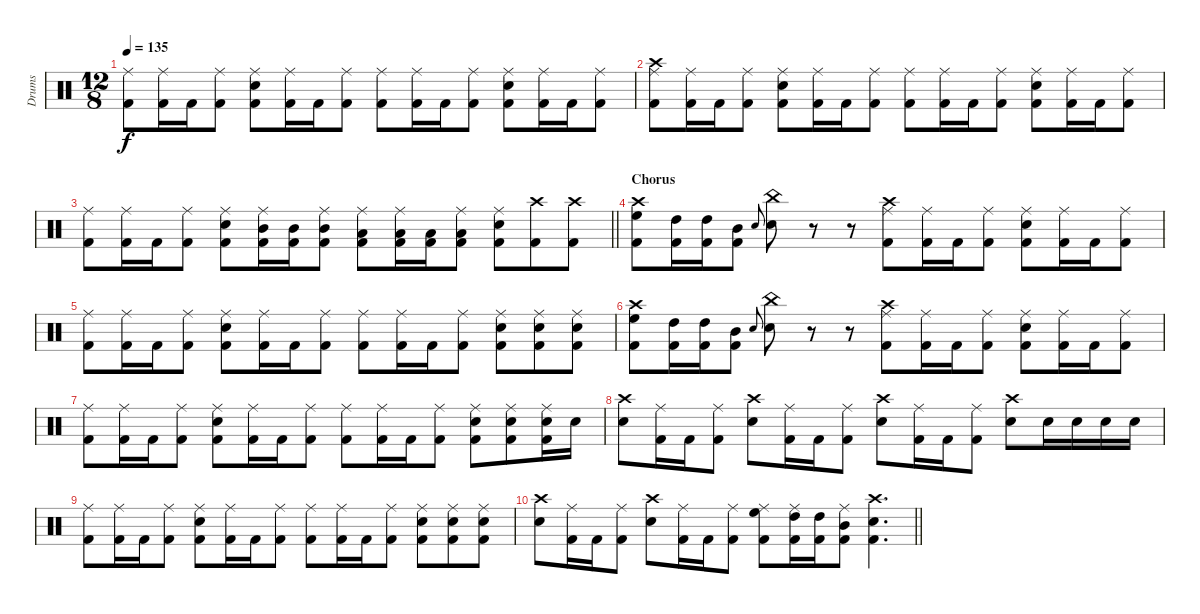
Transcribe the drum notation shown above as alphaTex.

\track ("Drums" "Drums") {instrument percussion}
\staff {score}
\articulation defaults
\ts (12 8)
\tempo 135
\clef neutral
\ks c
("Ride (middle)" "Kick (hit) 2").8{dy f} ("Ride (middle)" "Kick (hit) 2").16 "Kick (hit) 2".16 ("Ride (middle)" "Kick (hit) 2").8 ("Ride (middle)" "Snare (hit) 2" "Kick (hit) 2").8 ("Ride (middle)" "Kick (hit) 2").16 "Kick (hit) 2".16 ("Ride (middle)" "Kick (hit) 2").8 ("Ride (middle)" "Kick (hit) 2").8 ("Ride (middle)" "Kick (hit) 2").16 "Kick (hit) 2".16 ("Ride (middle)" "Kick (hit) 2").8 ("Ride (middle)" "Snare (hit) 2" "Kick (hit) 2").8 ("Ride (middle)" "Kick (hit) 2").16 "Kick (hit) 2".16 ("Ride (middle)" "Kick (hit) 2").8 |
("Crash high (hit)" "Ride (middle)" "Kick (hit) 2").8 ("Ride (middle)" "Kick (hit) 2").16 "Kick (hit) 2".16 ("Ride (middle)" "Kick (hit) 2").8 ("Ride (middle)" "Snare (hit) 2" "Kick (hit) 2").8 ("Ride (middle)" "Kick (hit) 2").16 "Kick (hit) 2".16 ("Ride (middle)" "Kick (hit) 2").8 ("Ride (middle)" "Kick (hit) 2").8 ("Ride (middle)" "Kick (hit) 2").16 "Kick (hit) 2".16 ("Ride (middle)" "Kick (hit) 2").8 ("Ride (middle)" "Snare (hit) 2" "Kick (hit) 2").8 ("Ride (middle)" "Kick (hit) 2").16 "Kick (hit) 2".16 ("Ride (middle)" "Kick (hit) 2").8 |
\barLineRight lightlight
("Ride (middle)" "Kick (hit) 2").8 ("Ride (middle)" "Kick (hit) 2").16 "Kick (hit) 2".16 ("Ride (middle)" "Kick (hit) 2").8 ("Ride (middle)" "Snare (hit) 2" "Kick (hit) 2").8 ("Ride (middle)" "Mid Tom (hit)" "Kick (hit) 2").16 ("Mid Tom (hit)" "Kick (hit) 2").16 ("Ride (middle)" "Mid Tom (hit)" "Kick (hit) 2").8 ("Ride (middle)" "Low Tom (hit)" "Kick (hit) 2").8 ("Ride (middle)" "Low Tom (hit)" "Kick (hit) 2").16 ("Low Tom (hit)" "Kick (hit) 2").16 ("Ride (middle)" "Low Tom (hit)" "Kick (hit) 2").8 ("Ride (middle)" "Snare (hit) 2" "Kick (hit) 2").8 ("Crash high (hit)" "Kick (hit) 2").8 ("Crash high (hit)" "Kick (hit) 2").8 |
\section ("" "Chorus")
("Crash high (hit)" "High Floor Tom (hit)" "Kick (hit) 2").8 ("High Tom (hit)" "Kick (hit) 2").16 ("High Tom (hit)" "Kick (hit) 2").16 ("Mid Tom (hit)" "Kick (hit) 2").8 "Snare (hit) 2".8{gr onbeat} ("China (hit)" "Snare (hit) 2").8 r.8 r.8 ("Crash high (hit)" "Ride (middle)" "Kick (hit) 2").8 ("Ride (middle)" "Kick (hit) 2").16 "Kick (hit) 2".16 ("Ride (middle)" "Kick (hit) 2").8 ("Ride (middle)" "Snare (hit) 2" "Kick (hit) 2").8 ("Ride (middle)" "Kick (hit) 2").16 "Kick (hit) 2".16 ("Ride (middle)" "Kick (hit) 2").8 |
("Ride (middle)" "Kick (hit) 2").8 ("Ride (middle)" "Kick (hit) 2").16 "Kick (hit) 2".16 ("Ride (middle)" "Kick (hit) 2").8 ("Ride (middle)" "Snare (hit) 2" "Kick (hit) 2").8 ("Ride (middle)" "Kick (hit) 2").16 "Kick (hit) 2".16 ("Ride (middle)" "Kick (hit) 2").8 ("Ride (middle)" "Kick (hit) 2").8 ("Ride (middle)" "Kick (hit) 2").16 "Kick (hit) 2".16 ("Ride (middle)" "Kick (hit) 2").8 ("Ride (middle)" "Snare (hit) 2" "Kick (hit) 2").8 ("Ride (middle)" "Snare (hit) 2" "Kick (hit) 2").8 ("Ride (middle)" "Snare (hit) 2" "Kick (hit) 2").8 |
("Crash high (hit)" "High Floor Tom (hit)" "Kick (hit) 2").8 ("High Tom (hit)" "Kick (hit) 2").16 ("High Tom (hit)" "Kick (hit) 2").16 ("Mid Tom (hit)" "Kick (hit) 2").8 "Snare (hit) 2".8{gr onbeat} ("China (hit)" "Snare (hit) 2").8 r.8 r.8 ("Crash high (hit)" "Ride (middle)" "Kick (hit) 2").8 ("Ride (middle)" "Kick (hit) 2").16 "Kick (hit) 2".16 ("Ride (middle)" "Kick (hit) 2").8 ("Ride (middle)" "Snare (hit) 2" "Kick (hit) 2").8 ("Ride (middle)" "Kick (hit) 2").16 "Kick (hit) 2".16 ("Ride (middle)" "Kick (hit) 2").8 |
("Ride (middle)" "Kick (hit) 2").8 ("Ride (middle)" "Kick (hit) 2").16 "Kick (hit) 2".16 ("Ride (middle)" "Kick (hit) 2").8 ("Ride (middle)" "Snare (hit) 2" "Kick (hit) 2").8 ("Ride (middle)" "Kick (hit) 2").16 "Kick (hit) 2".16 ("Ride (middle)" "Kick (hit) 2").8 ("Ride (middle)" "Kick (hit) 2").8 ("Ride (middle)" "Kick (hit) 2").16 "Kick (hit) 2".16 ("Ride (middle)" "Kick (hit) 2").8 ("Ride (middle)" "Snare (hit) 2" "Kick (hit) 2").8 ("Ride (middle)" "Snare (hit) 2" "Kick (hit) 2").8 ("Ride (middle)" "Snare (hit) 2" "Kick (hit) 2").16 "Snare (hit) 2".16 |
("Crash high (hit)" "Snare (hit) 2").8 ("Ride (middle)" "Kick (hit) 2").16 "Kick (hit) 2".16 ("Ride (middle)" "Kick (hit) 2").8 ("Crash high (hit)" "Snare (hit) 2").8 ("Ride (middle)" "Kick (hit) 2").16 "Kick (hit) 2".16 ("Ride (middle)" "Kick (hit) 2").8 ("Crash high (hit)" "Snare (hit) 2").8 ("Ride (middle)" "Kick (hit) 2").16 "Kick (hit) 2".16 ("Ride (middle)" "Kick (hit) 2").8 ("Crash high (hit)" "Snare (hit) 2").8 "Snare (hit) 2".16 "Snare (hit) 2".16 "Snare (hit) 2".16 "Snare (hit) 2".16 |
("Ride (middle)" "Kick (hit) 2").8 ("Ride (middle)" "Kick (hit) 2").16 "Kick (hit) 2".16 ("Ride (middle)" "Kick (hit) 2").8 ("Ride (middle)" "Snare (hit) 2" "Kick (hit) 2").8 ("Ride (middle)" "Kick (hit) 2").16 "Kick (hit) 2".16 ("Ride (middle)" "Kick (hit) 2").8 ("Ride (middle)" "Kick (hit) 2").8 ("Ride (middle)" "Kick (hit) 2").16 "Kick (hit) 2".16 ("Ride (middle)" "Kick (hit) 2").8 ("Ride (middle)" "Snare (hit) 2" "Kick (hit) 2").8 ("Ride (middle)" "Snare (hit) 2" "Kick (hit) 2").8 ("Ride (middle)" "Snare (hit) 2" "Kick (hit) 2").8 |
\barLineRight lightlight
("Crash high (hit)" "Snare (hit) 2").8 ("Ride (middle)" "Kick (hit) 2").16 "Kick (hit) 2".16 ("Ride (middle)" "Kick (hit) 2").8 ("Crash high (hit)" "Snare (hit) 2").8 ("Ride (middle)" "Kick (hit) 2").16 "Kick (hit) 2".16 ("Ride (middle)" "Kick (hit) 2").8 ("Ride (middle)" "High Floor Tom (hit)" "Kick (hit) 2").8 ("Ride (middle)" "High Tom (hit)" "Kick (hit) 2").16 ("High Tom (hit)" "Kick (hit) 2").16 ("Ride (middle)" "Mid Tom (hit)" "Kick (hit) 2").8 ("Crash high (hit)" "Snare (hit) 2" "Kick (hit) 2").4{d}
